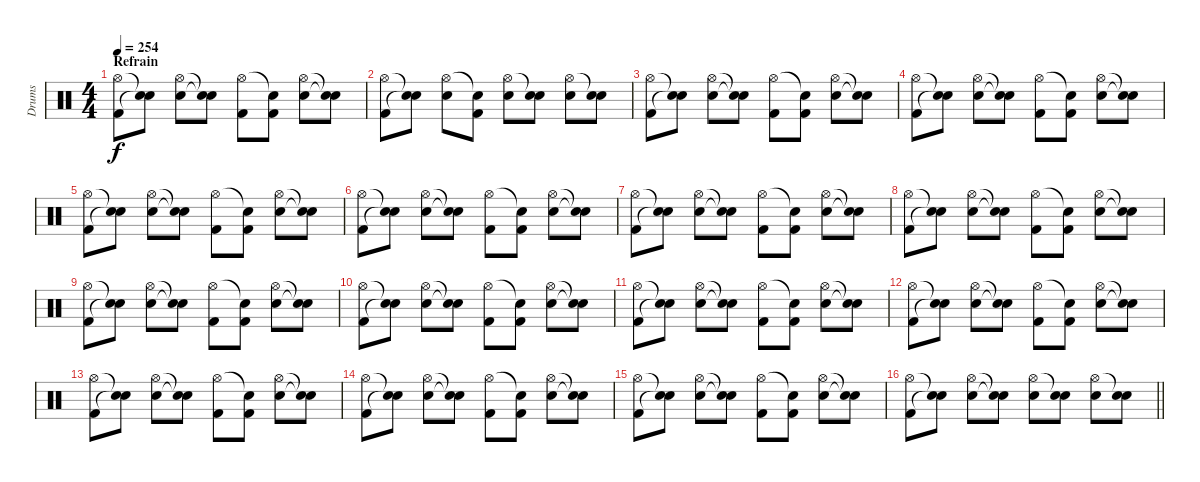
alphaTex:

\track ("Drums" "Drums") {instrument percussion}
\staff {score}
\articulation defaults
\ts (4 4)
\section ("" "Refrain")
\tempo 254
\clef neutral
\ks c
("Hi-Hat (open)" "Kick (hit) 2").8{dy f} ("Snare (hit)"{t} "Snare (hit)"{t}).8 ("Hi-Hat (open)" "Electric Snare (hit)").8 ("Snare (hit)"{t} "Snare (hit)"{t}).8 ("Hi-Hat (open)" "Kick (hit) 2").8 ("Snare (hit)"{t} "Kick (hit) 2").8 ("Hi-Hat (open)" "Electric Snare (hit)").8 ("Snare (hit)"{t} "Snare (hit)"{t}).8 |
("Hi-Hat (open)" "Kick (hit) 2").8 ("Snare (hit)"{t} "Snare (hit)"{t}).8 ("Hi-Hat (open)" "Electric Snare (hit)").8 ("Snare (hit)"{t} "Kick (hit) 2").8 ("Hi-Hat (open)" "Electric Snare (hit)").8 ("Snare (hit)"{t} "Electric Snare (hit)").8 ("Hi-Hat (open)" "Electric Snare (hit)").8 ("Snare (hit)"{t} "Electric Snare (hit)").8 |
("Hi-Hat (open)" "Kick (hit) 2").8 ("Snare (hit)"{t} "Snare (hit)"{t}).8 ("Hi-Hat (open)" "Electric Snare (hit)").8 ("Snare (hit)"{t} "Snare (hit)"{t}).8 ("Hi-Hat (open)" "Kick (hit) 2").8 ("Snare (hit)"{t} "Kick (hit) 2").8 ("Hi-Hat (open)" "Electric Snare (hit)").8 ("Snare (hit)"{t} "Snare (hit)"{t}).8 |
("Hi-Hat (open)" "Kick (hit) 2").8 ("Snare (hit)"{t} "Snare (hit)"{t}).8 ("Hi-Hat (open)" "Electric Snare (hit)").8 ("Snare (hit)"{t} "Snare (hit)"{t}).8 ("Hi-Hat (open)" "Kick (hit) 2").8 ("Snare (hit)"{t} "Kick (hit) 2").8 ("Hi-Hat (open)" "Electric Snare (hit)").8 ("Snare (hit)"{t} "Snare (hit)"{t}).8 |
("Hi-Hat (open)" "Kick (hit) 2").8 ("Snare (hit)"{t} "Snare (hit)"{t}).8 ("Hi-Hat (open)" "Electric Snare (hit)").8 ("Snare (hit)"{t} "Snare (hit)"{t}).8 ("Hi-Hat (open)" "Kick (hit) 2").8 ("Snare (hit)"{t} "Kick (hit) 2").8 ("Hi-Hat (open)" "Electric Snare (hit)").8 ("Snare (hit)"{t} "Snare (hit)"{t}).8 |
("Hi-Hat (open)" "Kick (hit) 2").8 ("Snare (hit)"{t} "Snare (hit)"{t}).8 ("Hi-Hat (open)" "Electric Snare (hit)").8 ("Snare (hit)"{t} "Snare (hit)"{t}).8 ("Hi-Hat (open)" "Kick (hit) 2").8 ("Snare (hit)"{t} "Kick (hit) 2").8 ("Hi-Hat (open)" "Electric Snare (hit)").8 ("Snare (hit)"{t} "Snare (hit)"{t}).8 |
("Hi-Hat (open)" "Kick (hit) 2").8 ("Snare (hit)"{t} "Snare (hit)"{t}).8 ("Hi-Hat (open)" "Electric Snare (hit)").8 ("Snare (hit)"{t} "Snare (hit)"{t}).8 ("Hi-Hat (open)" "Kick (hit) 2").8 ("Snare (hit)"{t} "Kick (hit) 2").8 ("Hi-Hat (open)" "Electric Snare (hit)").8 ("Snare (hit)"{t} "Snare (hit)"{t}).8 |
("Hi-Hat (open)" "Kick (hit) 2").8 ("Snare (hit)"{t} "Snare (hit)"{t}).8 ("Hi-Hat (open)" "Electric Snare (hit)").8 ("Snare (hit)"{t} "Snare (hit)"{t}).8 ("Hi-Hat (open)" "Kick (hit) 2").8 ("Snare (hit)"{t} "Kick (hit) 2").8 ("Hi-Hat (open)" "Electric Snare (hit)").8 ("Snare (hit)"{t} "Snare (hit)"{t}).8 |
("Hi-Hat (open)" "Kick (hit) 2").8 ("Snare (hit)"{t} "Snare (hit)"{t}).8 ("Hi-Hat (open)" "Electric Snare (hit)").8 ("Snare (hit)"{t} "Snare (hit)"{t}).8 ("Hi-Hat (open)" "Kick (hit) 2").8 ("Snare (hit)"{t} "Kick (hit) 2").8 ("Hi-Hat (open)" "Electric Snare (hit)").8 ("Snare (hit)"{t} "Snare (hit)"{t}).8 |
("Hi-Hat (open)" "Kick (hit) 2").8 ("Snare (hit)"{t} "Snare (hit)"{t}).8 ("Hi-Hat (open)" "Electric Snare (hit)").8 ("Snare (hit)"{t} "Snare (hit)"{t}).8 ("Hi-Hat (open)" "Kick (hit) 2").8 ("Snare (hit)"{t} "Kick (hit) 2").8 ("Hi-Hat (open)" "Electric Snare (hit)").8 ("Snare (hit)"{t} "Snare (hit)"{t}).8 |
("Hi-Hat (open)" "Kick (hit) 2").8 ("Snare (hit)"{t} "Snare (hit)"{t}).8 ("Hi-Hat (open)" "Electric Snare (hit)").8 ("Snare (hit)"{t} "Snare (hit)"{t}).8 ("Hi-Hat (open)" "Kick (hit) 2").8 ("Snare (hit)"{t} "Kick (hit) 2").8 ("Hi-Hat (open)" "Electric Snare (hit)").8 ("Snare (hit)"{t} "Snare (hit)"{t}).8 |
("Hi-Hat (open)" "Kick (hit) 2").8 ("Snare (hit)"{t} "Snare (hit)"{t}).8 ("Hi-Hat (open)" "Electric Snare (hit)").8 ("Snare (hit)"{t} "Snare (hit)"{t}).8 ("Hi-Hat (open)" "Kick (hit) 2").8 ("Snare (hit)"{t} "Kick (hit) 2").8 ("Hi-Hat (open)" "Electric Snare (hit)").8 ("Snare (hit)"{t} "Snare (hit)"{t}).8 |
("Hi-Hat (open)" "Kick (hit) 2").8 ("Snare (hit)"{t} "Snare (hit)"{t}).8 ("Hi-Hat (open)" "Electric Snare (hit)").8 ("Snare (hit)"{t} "Snare (hit)"{t}).8 ("Hi-Hat (open)" "Kick (hit) 2").8 ("Snare (hit)"{t} "Kick (hit) 2").8 ("Hi-Hat (open)" "Electric Snare (hit)").8 ("Snare (hit)"{t} "Snare (hit)"{t}).8 |
("Hi-Hat (open)" "Kick (hit) 2").8 ("Snare (hit)"{t} "Snare (hit)"{t}).8 ("Hi-Hat (open)" "Electric Snare (hit)").8 ("Snare (hit)"{t} "Snare (hit)"{t}).8 ("Hi-Hat (open)" "Kick (hit) 2").8 ("Snare (hit)"{t} "Kick (hit) 2").8 ("Hi-Hat (open)" "Electric Snare (hit)").8 ("Snare (hit)"{t} "Snare (hit)"{t}).8 |
("Hi-Hat (open)" "Kick (hit) 2").8 ("Snare (hit)"{t} "Snare (hit)"{t}).8 ("Hi-Hat (open)" "Electric Snare (hit)").8 ("Snare (hit)"{t} "Snare (hit)"{t}).8 ("Hi-Hat (open)" "Kick (hit) 2").8 ("Snare (hit)"{t} "Kick (hit) 2").8 ("Hi-Hat (open)" "Electric Snare (hit)").8 ("Snare (hit)"{t} "Snare (hit)"{t}).8 |
\barLineRight lightlight
("Hi-Hat (open)" "Kick (hit) 2").8 ("Snare (hit)"{t} "Snare (hit)"{t}).8 ("Hi-Hat (open)" "Electric Snare (hit)").8 ("Snare (hit)"{t} "Snare (hit)"{t}).8 ("Hi-Hat (open)" "Electric Snare (hit)").8 ("Snare (hit)"{t} "Electric Snare (hit)").8 ("Hi-Hat (open)" "Electric Snare (hit)").8 ("Snare (hit)"{t} "Electric Snare (hit)").8
